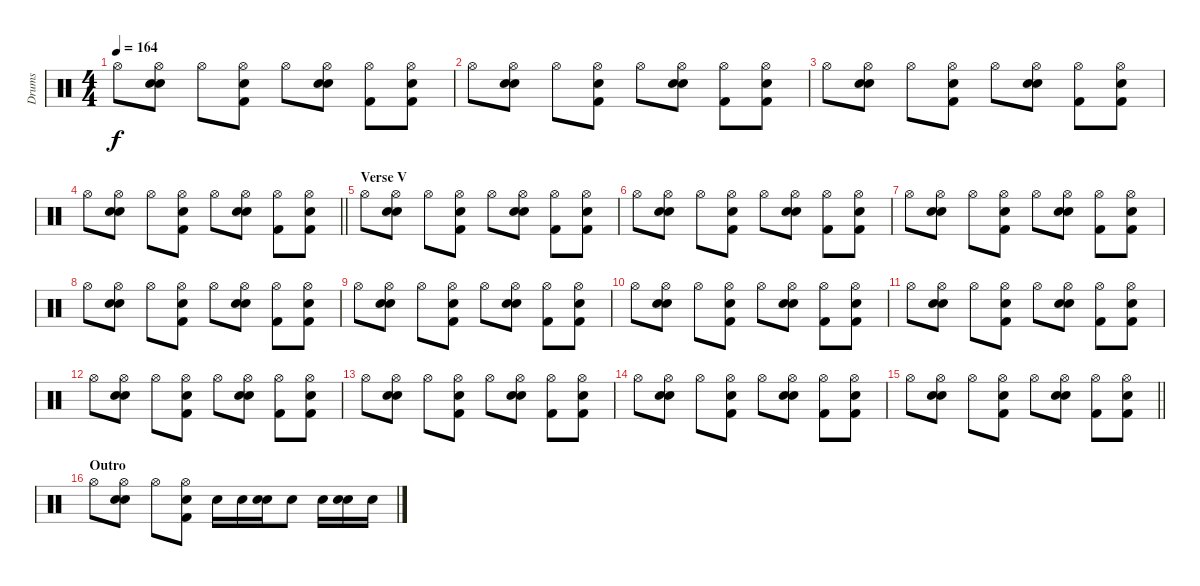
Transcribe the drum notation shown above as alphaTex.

\track ("Drums" "Drums") {instrument percussion}
\staff {score}
\articulation defaults
\ts (4 4)
\tempo 164
\clef neutral
\ks c "Hi-Hat (open)".8{dy f}
("Snare (hit) 2" "Hi-Hat (open)" "Hand Clap (hit)").8 "Hi-Hat (open)".8 ("Kick (hit) 2" "Hi-Hat (open)" "Hand Clap (hit)").8 "Hi-Hat (open)".8 ("Snare (hit) 2" "Hi-Hat (open)" "Hand Clap (hit)").8 ("Kick (hit) 2" "Hi-Hat (open)").8 ("Kick (hit) 2" "Hi-Hat (open)" "Hand Clap (hit)").8 |
"Hi-Hat (open)".8 ("Snare (hit) 2" "Hi-Hat (open)" "Hand Clap (hit)").8 "Hi-Hat (open)".8 ("Kick (hit) 2" "Hi-Hat (open)" "Hand Clap (hit)").8 "Hi-Hat (open)".8 ("Snare (hit) 2" "Hi-Hat (open)" "Hand Clap (hit)").8 ("Kick (hit) 2" "Hi-Hat (open)").8 ("Kick (hit) 2" "Hi-Hat (open)" "Hand Clap (hit)").8 |
"Hi-Hat (open)".8 ("Snare (hit) 2" "Hi-Hat (open)" "Hand Clap (hit)").8 "Hi-Hat (open)".8 ("Kick (hit) 2" "Hi-Hat (open)" "Hand Clap (hit)").8 "Hi-Hat (open)".8 ("Snare (hit) 2" "Hi-Hat (open)" "Hand Clap (hit)").8 ("Kick (hit) 2" "Hi-Hat (open)").8 ("Kick (hit) 2" "Hi-Hat (open)" "Hand Clap (hit)").8 |
\barLineRight lightlight "Hi-Hat (open)".8
("Snare (hit) 2" "Hi-Hat (open)" "Hand Clap (hit)").8 "Hi-Hat (open)".8 ("Kick (hit) 2" "Hi-Hat (open)" "Hand Clap (hit)").8 "Hi-Hat (open)".8 ("Snare (hit) 2" "Hi-Hat (open)" "Hand Clap (hit)").8 ("Kick (hit) 2" "Hi-Hat (open)").8 ("Kick (hit) 2" "Hi-Hat (open)" "Hand Clap (hit)").8 |
\section ("" "Verse V")
"Hi-Hat (open)".8 ("Snare (hit) 2" "Hi-Hat (open)" "Hand Clap (hit)").8 "Hi-Hat (open)".8 ("Kick (hit) 2" "Hi-Hat (open)" "Hand Clap (hit)").8 "Hi-Hat (open)".8 ("Snare (hit) 2" "Hi-Hat (open)" "Hand Clap (hit)").8 ("Kick (hit) 2" "Hi-Hat (open)").8 ("Kick (hit) 2" "Hi-Hat (open)" "Hand Clap (hit)").8 |
"Hi-Hat (open)".8 ("Snare (hit) 2" "Hi-Hat (open)" "Hand Clap (hit)").8 "Hi-Hat (open)".8 ("Kick (hit) 2" "Hi-Hat (open)" "Hand Clap (hit)").8 "Hi-Hat (open)".8 ("Snare (hit) 2" "Hi-Hat (open)" "Hand Clap (hit)").8 ("Kick (hit) 2" "Hi-Hat (open)").8 ("Kick (hit) 2" "Hi-Hat (open)" "Hand Clap (hit)").8 |
"Hi-Hat (open)".8 ("Snare (hit) 2" "Hi-Hat (open)" "Hand Clap (hit)").8 "Hi-Hat (open)".8 ("Kick (hit) 2" "Hi-Hat (open)" "Hand Clap (hit)").8 "Hi-Hat (open)".8 ("Snare (hit) 2" "Hi-Hat (open)" "Hand Clap (hit)").8 ("Kick (hit) 2" "Hi-Hat (open)").8 ("Kick (hit) 2" "Hi-Hat (open)" "Hand Clap (hit)").8 |
"Hi-Hat (open)".8 ("Snare (hit) 2" "Hi-Hat (open)" "Hand Clap (hit)").8 "Hi-Hat (open)".8 ("Kick (hit) 2" "Hi-Hat (open)" "Hand Clap (hit)").8 "Hi-Hat (open)".8 ("Snare (hit) 2" "Hi-Hat (open)" "Hand Clap (hit)").8 ("Kick (hit) 2" "Hi-Hat (open)").8 ("Kick (hit) 2" "Hi-Hat (open)" "Hand Clap (hit)").8 |
"Hi-Hat (open)".8 ("Snare (hit) 2" "Hi-Hat (open)" "Hand Clap (hit)").8 "Hi-Hat (open)".8 ("Kick (hit) 2" "Hi-Hat (open)" "Hand Clap (hit)").8 "Hi-Hat (open)".8 ("Snare (hit) 2" "Hi-Hat (open)" "Hand Clap (hit)").8 ("Kick (hit) 2" "Hi-Hat (open)").8 ("Kick (hit) 2" "Hi-Hat (open)" "Hand Clap (hit)").8 |
"Hi-Hat (open)".8 ("Snare (hit) 2" "Hi-Hat (open)" "Hand Clap (hit)").8 "Hi-Hat (open)".8 ("Kick (hit) 2" "Hi-Hat (open)" "Hand Clap (hit)").8 "Hi-Hat (open)".8 ("Snare (hit) 2" "Hi-Hat (open)" "Hand Clap (hit)").8 ("Kick (hit) 2" "Hi-Hat (open)").8 ("Kick (hit) 2" "Hi-Hat (open)" "Hand Clap (hit)").8 |
"Hi-Hat (open)".8 ("Snare (hit) 2" "Hi-Hat (open)" "Hand Clap (hit)").8 "Hi-Hat (open)".8 ("Kick (hit) 2" "Hi-Hat (open)" "Hand Clap (hit)").8 "Hi-Hat (open)".8 ("Snare (hit) 2" "Hi-Hat (open)" "Hand Clap (hit)").8 ("Kick (hit) 2" "Hi-Hat (open)").8 ("Kick (hit) 2" "Hi-Hat (open)" "Hand Clap (hit)").8 |
"Hi-Hat (open)".8 ("Snare (hit) 2" "Hi-Hat (open)" "Hand Clap (hit)").8 "Hi-Hat (open)".8 ("Kick (hit) 2" "Hi-Hat (open)" "Hand Clap (hit)").8 "Hi-Hat (open)".8 ("Snare (hit) 2" "Hi-Hat (open)" "Hand Clap (hit)").8 ("Kick (hit) 2" "Hi-Hat (open)").8 ("Kick (hit) 2" "Hi-Hat (open)" "Hand Clap (hit)").8 |
"Hi-Hat (open)".8 ("Snare (hit) 2" "Hi-Hat (open)" "Hand Clap (hit)").8 "Hi-Hat (open)".8 ("Kick (hit) 2" "Hi-Hat (open)" "Hand Clap (hit)").8 "Hi-Hat (open)".8 ("Snare (hit) 2" "Hi-Hat (open)" "Hand Clap (hit)").8 ("Kick (hit) 2" "Hi-Hat (open)").8 ("Kick (hit) 2" "Hi-Hat (open)" "Hand Clap (hit)").8 |
"Hi-Hat (open)".8 ("Snare (hit) 2" "Hi-Hat (open)" "Hand Clap (hit)").8 "Hi-Hat (open)".8 ("Kick (hit) 2" "Hi-Hat (open)" "Hand Clap (hit)").8 "Hi-Hat (open)".8 ("Snare (hit) 2" "Hi-Hat (open)" "Hand Clap (hit)").8 ("Kick (hit) 2" "Hi-Hat (open)").8 ("Kick (hit) 2" "Hi-Hat (open)" "Hand Clap (hit)").8 |
\barLineRight lightlight "Hi-Hat (open)".8
("Snare (hit) 2" "Hi-Hat (open)" "Hand Clap (hit)").8 "Hi-Hat (open)".8 ("Kick (hit) 2" "Hi-Hat (open)" "Hand Clap (hit)").8 "Hi-Hat (open)".8 ("Snare (hit) 2" "Hi-Hat (open)" "Hand Clap (hit)").8 ("Kick (hit) 2" "Hi-Hat (open)").8 ("Kick (hit) 2" "Hi-Hat (open)" "Hand Clap (hit)").8 |
\section ("" "Outro")
"Hi-Hat (open)".8 ("Snare (hit) 2" "Hi-Hat (open)" "Hand Clap (hit)").8 "Hi-Hat (open)".8 ("Kick (hit) 2" "Hi-Hat (open)" "Hand Clap (hit)").8 "Snare (hit) 2".16 "Snare (hit) 2".16 ("Snare (hit) 2" "Hand Clap (hit)").16 "Snare (hit) 2".8 "Snare (hit) 2".16 ("Snare (hit) 2" "Hand Clap (hit)").16 "Snare (hit) 2".16
